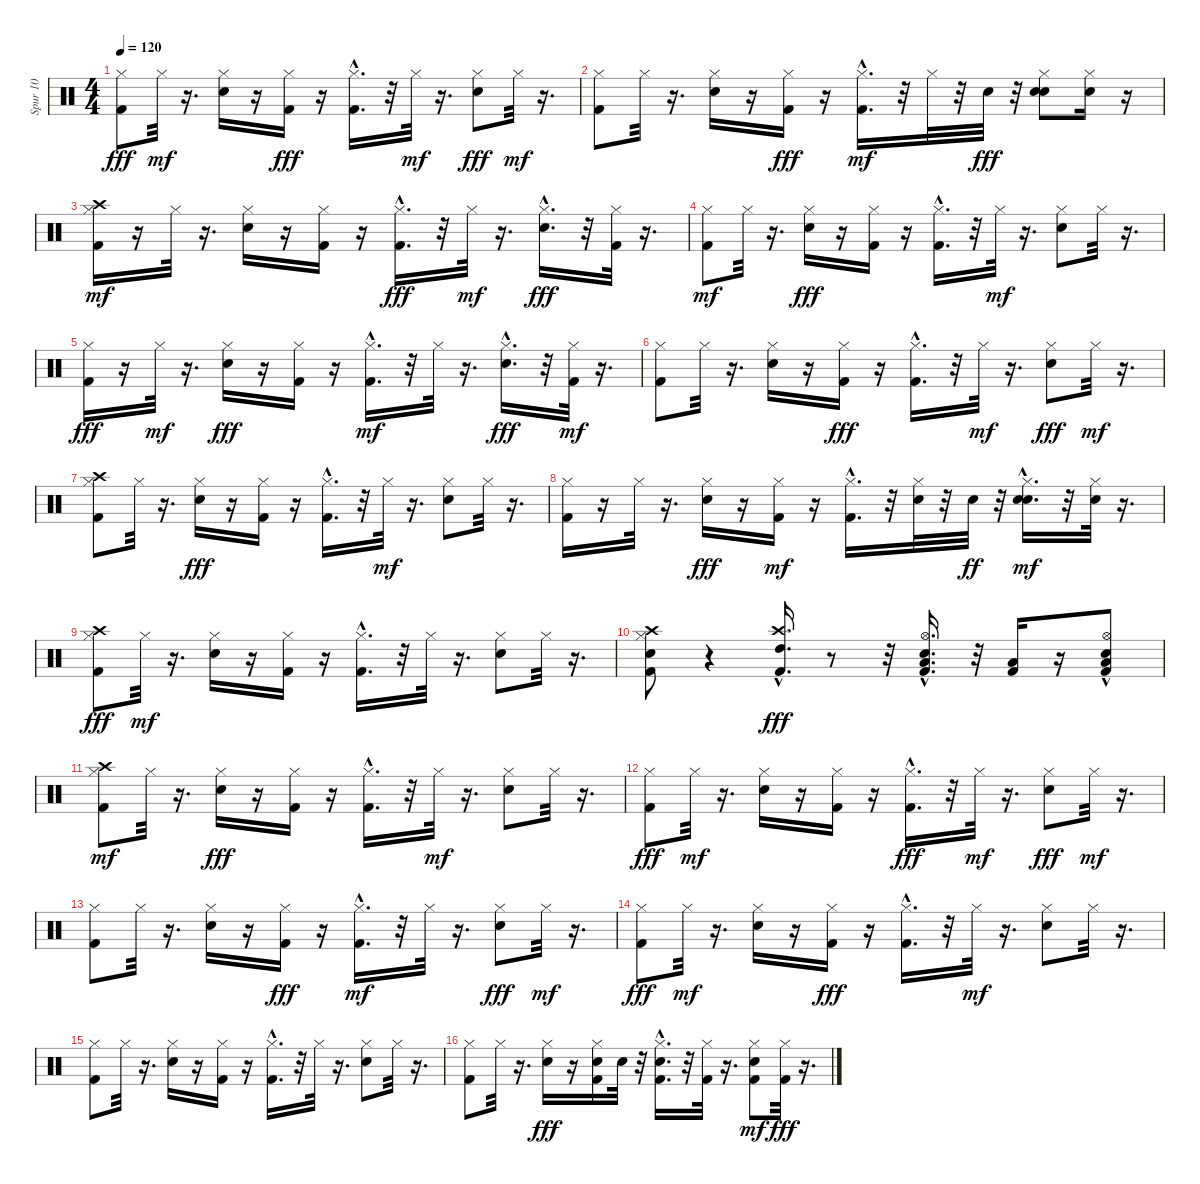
\track ("Spur 10" "Spur 10") {instrument percussion}
\staff {score}
\articulation defaults
\ts (4 4)
\tempo 120
\clef neutral
\ks c
("Hi-Hat (closed)" "Kick (hit) 2").8{dy fff} "Hi-Hat (closed)".32{dy mf} r.16{d} ("Electric Snare (hit)" "Hi-Hat (closed)").16 r.16 ("Hi-Hat (closed)" "Kick (hit) 2").16{dy fff} r.16 ("Hi-Hat (closed)" "Kick (hit) 2"{hac}).16{d} r.32 "Hi-Hat (closed)".32{dy mf} r.16{d} ("Hi-Hat (closed)" "Electric Snare (hit)").8{dy fff} "Hi-Hat (closed)".32{dy mf} r.16{d} |
("Kick (hit) 2" "Hi-Hat (closed)").8 "Hi-Hat (closed)".32 r.16{d} ("Electric Snare (hit)" "Hi-Hat (closed)").16 r.16 ("Hi-Hat (closed)" "Kick (hit) 2").16{dy fff} r.16 ("Kick (hit) 2"{hac} "Hi-Hat (closed)").16{d dy mf} r.32 "Hi-Hat (closed)".32 r.32 "Electric Snare (hit)".32{dy fff} r.32 ("Electric Snare (hit)" "Hi-Hat (closed)" "Electric Snare (hit)").8 ("Hi-Hat (closed)" "Electric Snare (hit)").16 r.16 |
("Kick (hit) 2" "Hi-Hat (closed)" "Crash high (hit)").16{dy mf} r.16 "Hi-Hat (closed)".32 r.16{d} ("Electric Snare (hit)" "Hi-Hat (closed)").16 r.16 ("Kick (hit) 2" "Hi-Hat (closed)").16 r.16 ("Hi-Hat (closed)" "Kick (hit) 2"{hac}).16{d dy fff} r.32 "Hi-Hat (closed)".32{dy mf} r.16{d} ("Hi-Hat (closed)" "Electric Snare (hit)"{hac}).16{d dy fff} r.32 ("Hi-Hat (closed)" "Kick (hit) 2").32 r.16{d} |
("Kick (hit) 2" "Hi-Hat (closed)").8{dy mf} "Hi-Hat (closed)".32 r.16{d} ("Hi-Hat (closed)" "Electric Snare (hit)").16{dy fff} r.16 ("Hi-Hat (closed)" "Kick (hit) 2").16 r.16 ("Hi-Hat (closed)" "Kick (hit) 2"{hac}).16{d} r.32 "Hi-Hat (closed)".32{dy mf} r.16{d} ("Electric Snare (hit)" "Hi-Hat (closed)").8 "Hi-Hat (closed)".32 r.16{d} |
("Hi-Hat (closed)" "Kick (hit) 2").16{dy fff} r.16 "Hi-Hat (closed)".32{dy mf} r.16{d} ("Hi-Hat (closed)" "Electric Snare (hit)").16{dy fff} r.16 ("Hi-Hat (closed)" "Kick (hit) 2").16 r.16 ("Kick (hit) 2"{hac} "Hi-Hat (closed)").16{d dy mf} r.32 "Hi-Hat (closed)".32 r.16{d} ("Hi-Hat (closed)" "Electric Snare (hit)"{hac}).16{d dy fff} r.32 ("Kick (hit) 2" "Hi-Hat (closed)").32{dy mf} r.16{d} |
("Kick (hit) 2" "Hi-Hat (closed)").8 "Hi-Hat (closed)".32 r.16{d} ("Electric Snare (hit)" "Hi-Hat (closed)").16 r.16 ("Hi-Hat (closed)" "Kick (hit) 2").16{dy fff} r.16 ("Hi-Hat (closed)" "Kick (hit) 2"{hac}).16{d} r.32 "Hi-Hat (closed)".32{dy mf} r.16{d} ("Hi-Hat (closed)" "Electric Snare (hit)").8{dy fff} "Hi-Hat (closed)".32{dy mf} r.16{d} |
("Kick (hit) 2" "Crash high (hit)" "Hi-Hat (closed)").8 "Hi-Hat (closed)".32 r.16{d} ("Hi-Hat (closed)" "Electric Snare (hit)").16{dy fff} r.16 ("Hi-Hat (closed)" "Kick (hit) 2").16 r.16 ("Hi-Hat (closed)" "Kick (hit) 2"{hac}).16{d} r.32 "Hi-Hat (closed)".32{dy mf} r.16{d} ("Electric Snare (hit)" "Hi-Hat (closed)").8 "Hi-Hat (closed)".32 r.16{d} |
("Kick (hit) 2" "Hi-Hat (closed)").16 r.16 "Hi-Hat (closed)".32 r.16{d} ("Hi-Hat (closed)" "Electric Snare (hit)").16{dy fff} r.16 ("Kick (hit) 2" "Hi-Hat (closed)").16{dy mf} r.16 ("Kick (hit) 2"{hac} "Hi-Hat (closed)").16{d} r.32 ("Electric Snare (hit)" "Hi-Hat (closed)").32 r.32 "Electric Snare (hit)".32{dy ff} r.32 ("Electric Snare (hit)"{hac} "Electric Snare (hit)"{hac} "Hi-Hat (closed)").16{d dy mf} r.32 ("Electric Snare (hit)" "Hi-Hat (closed)").32 r.16{d} |
("Crash high (hit)" "Hi-Hat (closed)" "Kick (hit) 2").8{dy fff} "Hi-Hat (closed)".32{dy mf} r.16{d} ("Electric Snare (hit)" "Hi-Hat (closed)").16 r.16 ("Kick (hit) 2" "Hi-Hat (closed)").16 r.16 ("Kick (hit) 2"{hac} "Hi-Hat (closed)").16{d} r.32 "Hi-Hat (closed)".32 r.16{d} ("Electric Snare (hit)" "Hi-Hat (closed)").8 "Hi-Hat (closed)".32 r.16{d} |
("Electric Snare (hit)" "Kick (hit) 2" "Crash high (hit)" "Hi-Hat (closed)").8 r.4 ("Crash high (hit)" "Kick (hit) 2"{hac} "High Tom (hit)").16{d dy fff} r.8 r.32 ("Hi-Hat (open)" "Snare (hit) 2"{hac} "Kick (hit) 2" "Low Tom (hit)").16{d} r.32 ("Kick (hit) 2" "Low Tom (hit)").16 r.16 ("Low Floor Tom (hit)"{hac} "Kick (hit) 2" "Hi-Hat (open)" "Snare (hit) 2").8 |
("Kick (hit) 2" "Crash high (hit)" "Hi-Hat (closed)").8{dy mf} "Hi-Hat (closed)".32 r.16{d} ("Hi-Hat (closed)" "Electric Snare (hit)").16{dy fff} r.16 ("Hi-Hat (closed)" "Kick (hit) 2").16 r.16 ("Hi-Hat (closed)" "Kick (hit) 2"{hac}).16{d} r.32 "Hi-Hat (closed)".32{dy mf} r.16{d} ("Electric Snare (hit)" "Hi-Hat (closed)").8 "Hi-Hat (closed)".32 r.16{d} |
("Hi-Hat (closed)" "Kick (hit) 2").8{dy fff} "Hi-Hat (closed)".32{dy mf} r.16{d} ("Electric Snare (hit)" "Hi-Hat (closed)").16 r.16 ("Kick (hit) 2" "Hi-Hat (closed)").16 r.16 ("Hi-Hat (closed)" "Kick (hit) 2"{hac}).16{d dy fff} r.32 "Hi-Hat (closed)".32{dy mf} r.16{d} ("Hi-Hat (closed)" "Electric Snare (hit)").8{dy fff} "Hi-Hat (closed)".32{dy mf} r.16{d} |
("Kick (hit) 2" "Hi-Hat (closed)").8 "Hi-Hat (closed)".32 r.16{d} ("Electric Snare (hit)" "Hi-Hat (closed)").16 r.16 ("Hi-Hat (closed)" "Kick (hit) 2").16{dy fff} r.16 ("Kick (hit) 2"{hac} "Hi-Hat (closed)").16{d dy mf} r.32 "Hi-Hat (closed)".32 r.16{d} ("Hi-Hat (closed)" "Electric Snare (hit)").8{dy fff} "Hi-Hat (closed)".32{dy mf} r.16{d} |
("Hi-Hat (closed)" "Kick (hit) 2").8{dy fff} "Hi-Hat (closed)".32{dy mf} r.16{d} ("Electric Snare (hit)" "Hi-Hat (closed)").16 r.16 ("Hi-Hat (closed)" "Kick (hit) 2").16{dy fff} r.16 ("Hi-Hat (closed)" "Kick (hit) 2"{hac}).16{d} r.32 "Hi-Hat (closed)".32{dy mf} r.16{d} ("Electric Snare (hit)" "Hi-Hat (closed)").8 "Hi-Hat (closed)".32 r.16{d} |
("Kick (hit) 2" "Hi-Hat (closed)").8 "Hi-Hat (closed)".32 r.16{d} ("Electric Snare (hit)" "Hi-Hat (closed)").16 r.16 ("Kick (hit) 2" "Hi-Hat (closed)").16 r.16 ("Kick (hit) 2"{hac} "Hi-Hat (closed)").16{d} r.32 "Hi-Hat (closed)".32 r.16{d} ("Electric Snare (hit)" "Hi-Hat (closed)").8 "Hi-Hat (closed)".32 r.16{d} |
("Kick (hit) 2" "Hi-Hat (closed)").8 "Hi-Hat (closed)".32 r.16{d} ("Hi-Hat (closed)" "Electric Snare (hit)").16{dy fff} r.16 ("Hi-Hat (closed)" "Electric Snare (hit)" "Kick (hit) 2").16 "Electric Snare (hit)".32 r.32 ("Kick (hit) 2"{hac} "Hi-Hat (closed)" "Electric Snare (hit)").16{d} r.32 ("Hi-Hat (closed)" "Kick (hit) 2").32 r.16{d} ("Electric Snare (hit)" "Kick (hit) 2" "Hi-Hat (closed)").8{dy mf} ("Hi-Hat (closed)" "Kick (hit) 2").32{dy fff} r.16{d}
